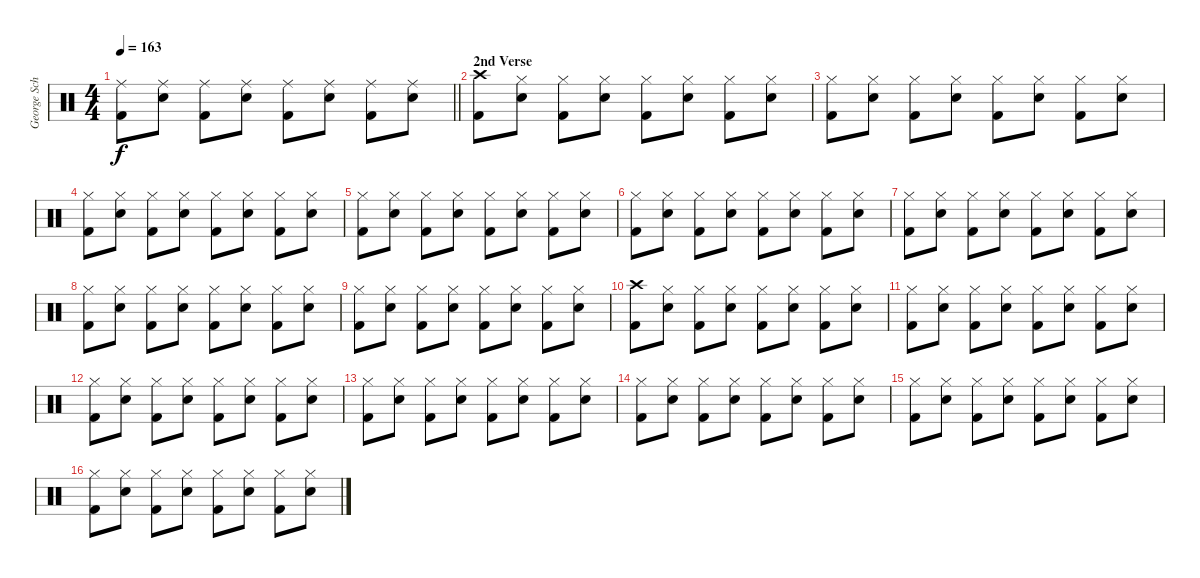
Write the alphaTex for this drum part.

\track ("George Schwindt" "George Sch") {instrument percussion}
\staff {score}
\articulation defaults
\ts (4 4)
\tempo 163
\clef neutral
\barLineRight lightlight
\ks c
("Ride (middle)" "Kick (hit) 2").8{dy f} ("Ride (middle)" "Snare (hit) 2").8 ("Ride (middle)" "Kick (hit) 2").8 ("Ride (middle)" "Snare (hit) 2").8 ("Ride (middle)" "Kick (hit) 2").8 ("Ride (middle)" "Snare (hit) 2").8 ("Ride (middle)" "Kick (hit) 2").8 ("Ride (middle)" "Snare (hit) 2").8 |
\section ("" "2nd Verse ")
("Crash high (hit)" "Kick (hit) 2").8 ("Hi-Hat (closed)" "Snare (hit) 2").8 ("Hi-Hat (closed)" "Kick (hit) 2").8 ("Hi-Hat (closed)" "Snare (hit) 2").8 ("Hi-Hat (closed)" "Kick (hit) 2").8 ("Hi-Hat (closed)" "Snare (hit) 2").8 ("Hi-Hat (closed)" "Kick (hit) 2").8 ("Hi-Hat (closed)" "Snare (hit) 2").8 |
("Hi-Hat (closed)" "Kick (hit) 2").8 ("Hi-Hat (closed)" "Snare (hit) 2").8 ("Hi-Hat (closed)" "Kick (hit) 2").8 ("Hi-Hat (closed)" "Snare (hit) 2").8 ("Hi-Hat (closed)" "Kick (hit) 2").8 ("Hi-Hat (closed)" "Snare (hit) 2").8 ("Hi-Hat (closed)" "Kick (hit) 2").8 ("Hi-Hat (closed)" "Snare (hit) 2").8 |
("Hi-Hat (closed)" "Kick (hit) 2").8 ("Hi-Hat (closed)" "Snare (hit) 2").8 ("Hi-Hat (closed)" "Kick (hit) 2").8 ("Hi-Hat (closed)" "Snare (hit) 2").8 ("Hi-Hat (closed)" "Kick (hit) 2").8 ("Hi-Hat (closed)" "Snare (hit) 2").8 ("Hi-Hat (closed)" "Kick (hit) 2").8 ("Hi-Hat (closed)" "Snare (hit) 2").8 |
("Hi-Hat (closed)" "Kick (hit) 2").8 ("Hi-Hat (closed)" "Snare (hit) 2").8 ("Hi-Hat (closed)" "Kick (hit) 2").8 ("Hi-Hat (closed)" "Snare (hit) 2").8 ("Hi-Hat (closed)" "Kick (hit) 2").8 ("Hi-Hat (closed)" "Snare (hit) 2").8 ("Hi-Hat (closed)" "Kick (hit) 2").8 ("Hi-Hat (closed)" "Snare (hit) 2").8 |
("Hi-Hat (closed)" "Kick (hit) 2").8 ("Hi-Hat (closed)" "Snare (hit) 2").8 ("Hi-Hat (closed)" "Kick (hit) 2").8 ("Hi-Hat (closed)" "Snare (hit) 2").8 ("Hi-Hat (closed)" "Kick (hit) 2").8 ("Hi-Hat (closed)" "Snare (hit) 2").8 ("Hi-Hat (closed)" "Kick (hit) 2").8 ("Hi-Hat (closed)" "Snare (hit) 2").8 |
("Hi-Hat (closed)" "Kick (hit) 2").8 ("Hi-Hat (closed)" "Snare (hit) 2").8 ("Hi-Hat (closed)" "Kick (hit) 2").8 ("Hi-Hat (closed)" "Snare (hit) 2").8 ("Hi-Hat (closed)" "Kick (hit) 2").8 ("Hi-Hat (closed)" "Snare (hit) 2").8 ("Hi-Hat (closed)" "Kick (hit) 2").8 ("Hi-Hat (closed)" "Snare (hit) 2").8 |
("Hi-Hat (closed)" "Kick (hit) 2").8 ("Hi-Hat (closed)" "Snare (hit) 2").8 ("Hi-Hat (closed)" "Kick (hit) 2").8 ("Hi-Hat (closed)" "Snare (hit) 2").8 ("Hi-Hat (closed)" "Kick (hit) 2").8 ("Hi-Hat (closed)" "Snare (hit) 2").8 ("Hi-Hat (closed)" "Kick (hit) 2").8 ("Hi-Hat (closed)" "Snare (hit) 2").8 |
("Hi-Hat (closed)" "Kick (hit) 2").8 ("Hi-Hat (closed)" "Snare (hit) 2").8 ("Hi-Hat (closed)" "Kick (hit) 2").8 ("Hi-Hat (closed)" "Snare (hit) 2").8 ("Hi-Hat (closed)" "Kick (hit) 2").8 ("Hi-Hat (closed)" "Snare (hit) 2").8 ("Hi-Hat (closed)" "Kick (hit) 2").8 ("Hi-Hat (closed)" "Snare (hit) 2").8 |
("Crash high (hit)" "Kick (hit) 2").8 ("Hi-Hat (closed)" "Snare (hit) 2").8 ("Hi-Hat (closed)" "Kick (hit) 2").8 ("Hi-Hat (closed)" "Snare (hit) 2").8 ("Hi-Hat (closed)" "Kick (hit) 2").8 ("Hi-Hat (closed)" "Snare (hit) 2").8 ("Hi-Hat (closed)" "Kick (hit) 2").8 ("Hi-Hat (closed)" "Snare (hit) 2").8 |
("Hi-Hat (closed)" "Kick (hit) 2").8 ("Hi-Hat (closed)" "Snare (hit) 2").8 ("Hi-Hat (closed)" "Kick (hit) 2").8 ("Hi-Hat (closed)" "Snare (hit) 2").8 ("Hi-Hat (closed)" "Kick (hit) 2").8 ("Hi-Hat (closed)" "Snare (hit) 2").8 ("Hi-Hat (closed)" "Kick (hit) 2").8 ("Hi-Hat (closed)" "Snare (hit) 2").8 |
("Hi-Hat (closed)" "Kick (hit) 2").8 ("Hi-Hat (closed)" "Snare (hit) 2").8 ("Hi-Hat (closed)" "Kick (hit) 2").8 ("Hi-Hat (closed)" "Snare (hit) 2").8 ("Hi-Hat (closed)" "Kick (hit) 2").8 ("Hi-Hat (closed)" "Snare (hit) 2").8 ("Hi-Hat (closed)" "Kick (hit) 2").8 ("Hi-Hat (closed)" "Snare (hit) 2").8 |
("Hi-Hat (closed)" "Kick (hit) 2").8 ("Hi-Hat (closed)" "Snare (hit) 2").8 ("Hi-Hat (closed)" "Kick (hit) 2").8 ("Hi-Hat (closed)" "Snare (hit) 2").8 ("Hi-Hat (closed)" "Kick (hit) 2").8 ("Hi-Hat (closed)" "Snare (hit) 2").8 ("Hi-Hat (closed)" "Kick (hit) 2").8 ("Hi-Hat (closed)" "Snare (hit) 2").8 |
("Hi-Hat (closed)" "Kick (hit) 2").8 ("Hi-Hat (closed)" "Snare (hit) 2").8 ("Hi-Hat (closed)" "Kick (hit) 2").8 ("Hi-Hat (closed)" "Snare (hit) 2").8 ("Hi-Hat (closed)" "Kick (hit) 2").8 ("Hi-Hat (closed)" "Snare (hit) 2").8 ("Hi-Hat (closed)" "Kick (hit) 2").8 ("Hi-Hat (closed)" "Snare (hit) 2").8 |
("Hi-Hat (closed)" "Kick (hit) 2").8 ("Hi-Hat (closed)" "Snare (hit) 2").8 ("Hi-Hat (closed)" "Kick (hit) 2").8 ("Hi-Hat (closed)" "Snare (hit) 2").8 ("Hi-Hat (closed)" "Kick (hit) 2").8 ("Hi-Hat (closed)" "Snare (hit) 2").8 ("Hi-Hat (closed)" "Kick (hit) 2").8 ("Hi-Hat (closed)" "Snare (hit) 2").8 |
("Hi-Hat (closed)" "Kick (hit) 2").8 ("Hi-Hat (closed)" "Snare (hit) 2").8 ("Hi-Hat (closed)" "Kick (hit) 2").8 ("Hi-Hat (closed)" "Snare (hit) 2").8 ("Hi-Hat (closed)" "Kick (hit) 2").8 ("Hi-Hat (closed)" "Snare (hit) 2").8 ("Hi-Hat (closed)" "Kick (hit) 2").8 ("Hi-Hat (closed)" "Snare (hit) 2").8
